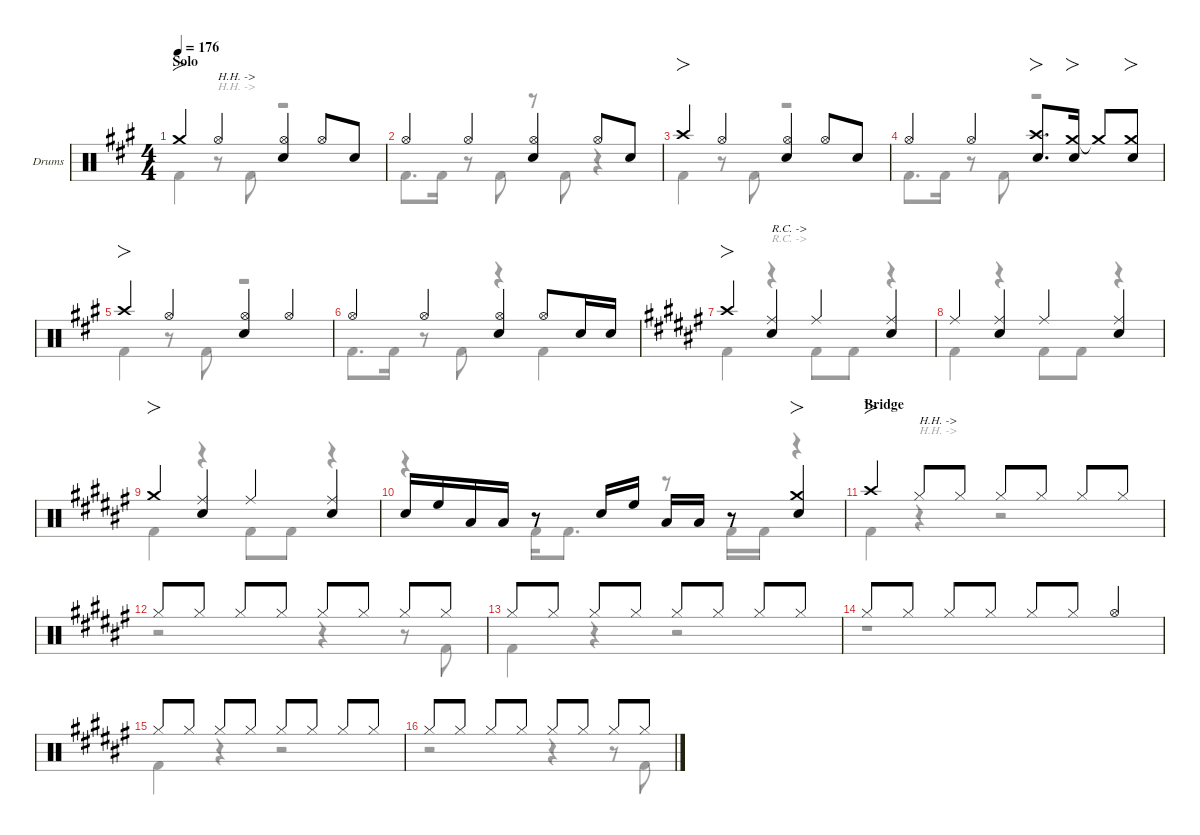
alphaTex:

\defaultSystemsLayout 4
\hideDynamics
\bracketExtendMode nobrackets
\firstSystemTrackNameOrientation horizontal
\track ("Drums" "Drums") {defaultSystemsLayout 4 instrument percussion}
\staff {score}
\articulation defaults
\voice
\ts (4 4)
\section ("" "Solo")
\tempo 176
\clef neutral
\ks a "Crash medium (hit)"{acc forcenatural}.4{fo dy f beam Up} "Hi-Hat (open)"{acc forcenatural}.4{txt "H.H. ->" beam Up}
("Hi-Hat (open)"{acc forcenatural} "Snare (hit) 2"{acc forcenatural}).4{beam Up} "Hi-Hat (open)"{acc forcenatural}.8{beam Up} "Snare (hit) 2"{acc forcenatural}.8{beam Up} |
"Hi-Hat (open)"{acc forcenatural}.4{beam Up} "Hi-Hat (open)"{acc forcenatural}.4{beam Up} ("Hi-Hat (open)"{acc forcenatural} "Snare (hit) 2"{acc forcenatural}).4{beam Up} "Hi-Hat (open)"{acc forcenatural}.8{beam Up} "Snare (hit) 2"{acc forcenatural}.8{beam Up} |
"Crash high (hit)"{acc forcenatural}.4{fo beam Up} "Hi-Hat (open)"{acc forcenatural}.4{beam Up} ("Hi-Hat (open)"{acc forcenatural} "Snare (hit) 2"{acc forcenatural}).4{beam Up} "Hi-Hat (open)"{acc forcenatural}.8{beam Up} "Snare (hit) 2"{acc forcenatural}.8{beam Up} |
"Hi-Hat (open)"{acc forcenatural}.4{beam Up} "Hi-Hat (open)"{acc forcenatural}.4{beam Up} ("Crash high (hit)"{acc forcenatural} "Snare (hit) 2"{acc forcenatural}).8{fo d beam Up} ("Crash medium (hit)"{acc forcenatural} "Snare (hit) 2"{acc forcenatural}).16{fo beam Up beam split} "Crash medium (hit)"{t acc forcenatural}.8{beam Up} ("Crash medium (hit)"{acc forcenatural} "Snare (hit) 2"{acc forcenatural}).8{fo beam Up} |
"Crash high (hit)"{acc forcenatural}.4{fo beam Up} "Hi-Hat (open)"{acc forcenatural}.4{beam Up} ("Hi-Hat (open)"{acc forcenatural} "Snare (hit) 2"{acc forcenatural}).4{beam Up} "Hi-Hat (open)"{acc forcenatural}.4{beam Up} |
"Hi-Hat (open)"{acc forcenatural}.4{beam Up} "Hi-Hat (open)"{acc forcenatural}.4{beam Up} ("Hi-Hat (open)"{acc forcenatural} "Snare (hit) 2"{acc forcenatural}).4{beam Up} "Hi-Hat (open)"{acc forcenatural}.8{beam Up} "Snare (hit) 2"{acc forcenatural}.16{beam Up} "Snare (hit) 2"{acc forcenatural}.16{dy mf beam Up} |
\ks f# "Crash high (hit)"{acc forcenatural}.4{fo dy f beam Up}
("Ride (middle)"{acc forcenatural} "Snare (hit) 2"{acc forcenatural}).4{txt "R.C. ->" beam Up} "Ride (middle)"{acc forcenatural}.4{beam Up} ("Ride (middle)"{acc forcenatural} "Snare (hit) 2"{acc forcenatural}).4{beam Up} |
"Ride (middle)"{acc forcenatural}.4{beam Up} ("Ride (middle)"{acc forcenatural} "Snare (hit) 2"{acc forcenatural}).4{beam Up} "Ride (middle)"{acc forcenatural}.4{beam Up} ("Ride (middle)"{acc forcenatural} "Snare (hit) 2"{acc forcenatural}).4{beam Up} |
"Crash medium (hit)"{acc forcenatural}.4{fo beam Up} ("Ride (middle)"{acc forcenatural} "Snare (hit) 2"{acc forcenatural}).4{beam Up} "Ride (middle)"{acc forcenatural}.4{beam Up} ("Ride (middle)"{acc forcenatural} "Snare (hit) 2"{acc forcenatural}).4{beam Up} |
"Snare (hit) 2"{acc forcenatural}.16{beam Up} "High Floor Tom (hit)"{acc forcenatural}.16{beam Up} "Low Tom (hit)"{acc forcenatural}.16{beam Up} "Low Tom (hit)"{acc forcenatural}.16{beam Up beam split} r.8{beam Up beam split} "Snare (hit) 2"{acc forcenatural}.16{beam Up} "High Floor Tom (hit)"{acc forcenatural}.16{beam Up} "Low Tom (hit)"{acc forcenatural}.16{beam Up} "Low Tom (hit)"{acc forcenatural}.16{beam Up beam split} r.8{beam Up} ("Snare (hit) 2"{acc forcenatural} "Crash medium (hit)"{acc forcenatural}).4{fo beam Up} |
\section ("" "Bridge")
"Crash high (hit)"{acc forcenatural}.4{fo beam Up} "Hi-Hat (closed)"{acc forcenatural}.8{txt "H.H. ->" beam Up} "Hi-Hat (closed)"{acc forcenatural}.8{dy mp beam Up} "Hi-Hat (closed)"{acc forcenatural}.8{dy f beam Up} "Hi-Hat (closed)"{acc forcenatural}.8{dy mp beam Up} "Hi-Hat (closed)"{acc forcenatural}.8{dy f beam Up} "Hi-Hat (closed)"{acc forcenatural}.8{dy mp beam Up} |
"Hi-Hat (closed)"{acc forcenatural}.8{dy f beam Up} "Hi-Hat (closed)"{acc forcenatural}.8{dy mp beam Up} "Hi-Hat (closed)"{acc forcenatural}.8{dy f beam Up} "Hi-Hat (closed)"{acc forcenatural}.8{dy mp beam Up} "Hi-Hat (closed)"{acc forcenatural}.8{dy f beam Up} "Hi-Hat (closed)"{acc forcenatural}.8{dy mp beam Up} "Hi-Hat (closed)"{acc forcenatural}.8{dy f beam Up} "Hi-Hat (closed)"{acc forcenatural}.8{dy mp beam Up} |
"Hi-Hat (closed)"{acc forcenatural}.8{dy f beam Up} "Hi-Hat (closed)"{acc forcenatural}.8{dy mp beam Up} "Hi-Hat (closed)"{acc forcenatural}.8{dy f beam Up} "Hi-Hat (closed)"{acc forcenatural}.8{dy mp beam Up} "Hi-Hat (closed)"{acc forcenatural}.8{dy f beam Up} "Hi-Hat (closed)"{acc forcenatural}.8{dy mp beam Up} "Hi-Hat (closed)"{acc forcenatural}.8{dy f beam Up} "Hi-Hat (closed)"{acc forcenatural}.8{dy mp beam Up} |
"Hi-Hat (closed)"{acc forcenatural}.8{dy f beam Up} "Hi-Hat (closed)"{acc forcenatural}.8{dy mp beam Up} "Hi-Hat (closed)"{acc forcenatural}.8{dy f beam Up} "Hi-Hat (closed)"{acc forcenatural}.8{dy mp beam Up} "Hi-Hat (closed)"{acc forcenatural}.8{dy f beam Up} "Hi-Hat (closed)"{acc forcenatural}.8{dy mp beam Up} "Hi-Hat (open)"{acc forcenatural}.4{dy f beam Up} |
"Hi-Hat (closed)"{acc forcenatural}.8{beam Up} "Hi-Hat (closed)"{acc forcenatural}.8{dy mp beam Up} "Hi-Hat (closed)"{acc forcenatural}.8{dy f beam Up} "Hi-Hat (closed)"{acc forcenatural}.8{dy mp beam Up} "Hi-Hat (closed)"{acc forcenatural}.8{dy f beam Up} "Hi-Hat (closed)"{acc forcenatural}.8{dy mp beam Up} "Hi-Hat (closed)"{acc forcenatural}.8{dy f beam Up} "Hi-Hat (closed)"{acc forcenatural}.8{dy mp beam Up} |
"Hi-Hat (closed)"{acc forcenatural}.8{dy f beam Up} "Hi-Hat (closed)"{acc forcenatural}.8{dy mp beam Up} "Hi-Hat (closed)"{acc forcenatural}.8{dy f beam Up} "Hi-Hat (closed)"{acc forcenatural}.8{dy mp beam Up} "Hi-Hat (closed)"{acc forcenatural}.8{dy f beam Up} "Hi-Hat (closed)"{acc forcenatural}.8{dy mp beam Up} "Hi-Hat (closed)"{acc forcenatural}.8{dy f beam Up} "Hi-Hat (closed)"{acc forcenatural}.8{dy mp beam Up}
\voice
\clef neutral
\ottava regular
\simile none
\ks a "Kick (hit) 2"{acc forcenatural}.4{dy f beam Down}
r.8{txt "H.H. ->" beam Down} "Kick (hit) 2"{acc forcenatural}.8{beam Down} r.2{beam Down} |
"Kick (hit) 2"{acc forcenatural}.8{d beam Down} "Kick (hit) 2"{acc forcenatural}.16{beam Down beam split} r.8{beam Down beam split} "Kick (hit) 2"{acc forcenatural}.8{beam Down} r.8{beam Down} "Kick (hit) 2"{acc forcenatural}.8{beam Down} r.4{beam Down} |
"Kick (hit) 2"{acc forcenatural}.4{beam Down} r.8{beam Down} "Kick (hit) 2"{acc forcenatural}.8{beam Down} r.2{beam Down} |
"Kick (hit) 2"{acc forcenatural}.8{d beam Down} "Kick (hit) 2"{acc forcenatural}.16{beam Down beam split} r.8{beam Down beam split} "Kick (hit) 2"{acc forcenatural}.8{beam Down} r.2{beam Down} |
"Kick (hit) 2"{acc forcenatural}.4{beam Down} r.8{beam Down} "Kick (hit) 2"{acc forcenatural}.8{beam Down} r.2{beam Down} |
"Kick (hit) 2"{acc forcenatural}.8{d beam Down} "Kick (hit) 2"{acc forcenatural}.16{beam Down beam split} r.8{beam Down beam split} "Kick (hit) 2"{acc forcenatural}.8{beam Down} r.4{beam Down} "Kick (hit) 2"{acc forcenatural}.4{beam Down} |
\ks f# "Kick (hit) 2"{acc forcenatural}.4{beam Down}
r.4{txt "R.C. ->" beam Down} "Kick (hit) 2"{acc forcenatural}.8{beam Down} "Kick (hit) 2"{acc forcenatural}.8{beam Down} r.4{beam Down} |
"Kick (hit) 2"{acc forcenatural}.4{beam Down} r.4{beam Down} "Kick (hit) 2"{acc forcenatural}.8{beam Down} "Kick (hit) 2"{acc forcenatural}.8{beam Down} r.4{beam Down} |
"Kick (hit) 2"{acc forcenatural}.4{beam Down} r.4{beam Down} "Kick (hit) 2"{acc forcenatural}.8{beam Down} "Kick (hit) 2"{acc forcenatural}.8{beam Down} r.4{beam Down} |
r.4{beam Down} "Kick (hit) 2"{acc forcenatural}.16{beam Down} "Kick (hit) 2"{acc forcenatural}.8{d beam Down} r.8{beam Down} "Kick (hit) 2"{acc forcenatural}.16{beam Down} "Kick (hit) 2"{acc forcenatural}.16{beam Down} r.4{beam Down} |
"Kick (hit) 2"{acc forcenatural}.4{beam Down} r.4{txt "H.H. ->" beam Down} r.2{beam Down} |
r.2{beam Down} r.4{beam Down} r.8{beam Down} "Kick (hit) 2"{acc forcenatural}.8{beam Down} |
"Kick (hit) 2"{acc forcenatural}.4{beam Down} r.4{beam Down} r.2{beam Down} |
r.1{beam Down} |
"Kick (hit) 2"{acc forcenatural}.4{beam Down} r.4{beam Down} r.2{beam Down} |
r.2{beam Down} r.4{beam Down} r.8{beam Down} "Kick (hit) 2"{acc forcenatural}.8{beam Down}
